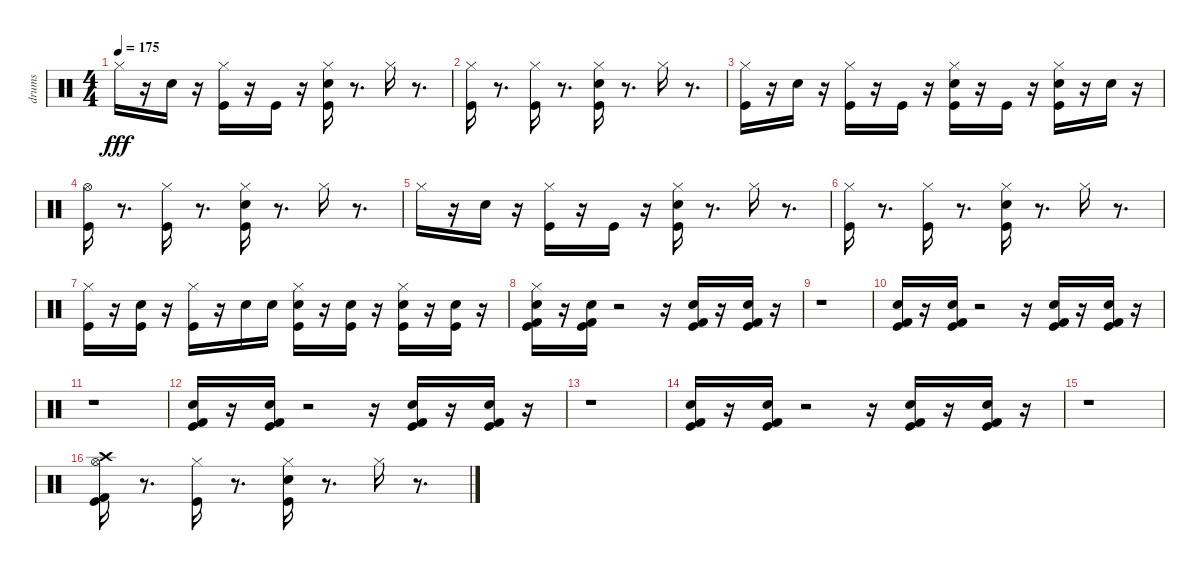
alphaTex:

\track ("drums" "drums") {instrument percussion}
\staff {score}
\articulation defaults
\ts (4 4)
\tempo 175
\clef neutral
\ks c "Hi-Hat (closed)".16{dy fff}
r.16 "Snare (hit) 2".16 r.16 ("Hi-Hat (closed)" "Kick (hit)").16 r.16 "Kick (hit)".16 r.16 ("Hi-Hat (closed)" "Snare (hit) 2" "Kick (hit)").16 r.8{d} "Hi-Hat (closed)".16 r.8{d} |
("Kick (hit)" "Hi-Hat (closed)").16 r.8{d} ("Kick (hit)" "Hi-Hat (closed)").16 r.8{d} ("Snare (hit) 2" "Kick (hit)" "Hi-Hat (closed)").16 r.8{d} "Hi-Hat (closed)".16 r.8{d} |
("Hi-Hat (closed)" "Kick (hit)").16 r.16 "Snare (hit) 2".16 r.16 ("Hi-Hat (closed)" "Kick (hit)").16 r.16 "Kick (hit)".16 r.16 ("Hi-Hat (closed)" "Snare (hit) 2" "Kick (hit)").16 r.16 "Kick (hit)".16 r.16 ("Hi-Hat (closed)" "Kick (hit)" "Snare (hit) 2").16 r.16 "Snare (hit) 2".16 r.16 |
("Kick (hit)" "Hi-Hat (open)").16 r.8{d} ("Kick (hit)" "Hi-Hat (closed)").16 r.8{d} ("Snare (hit) 2" "Kick (hit)" "Hi-Hat (closed)").16 r.8{d} "Hi-Hat (closed)".16 r.8{d} |
"Hi-Hat (closed)".16 r.16 "Snare (hit) 2".16 r.16 ("Hi-Hat (closed)" "Kick (hit)").16 r.16 "Kick (hit)".16 r.16 ("Hi-Hat (closed)" "Snare (hit) 2" "Kick (hit)").16 r.8{d} "Hi-Hat (closed)".16 r.8{d} |
("Kick (hit)" "Hi-Hat (closed)").16 r.8{d} ("Kick (hit)" "Hi-Hat (closed)").16 r.8{d} ("Snare (hit) 2" "Kick (hit)" "Hi-Hat (closed)").16 r.8{d} "Hi-Hat (closed)".16 r.8{d} |
("Hi-Hat (closed)" "Kick (hit)").16 r.16 ("Snare (hit) 2" "Kick (hit)").16 r.16 ("Hi-Hat (closed)" "Kick (hit)").16 r.16 "Snare (hit) 2".16 "Snare (hit) 2".16 ("Hi-Hat (closed)" "Snare (hit) 2" "Kick (hit)").16 r.16 ("Kick (hit)" "Snare (hit) 2").16 r.16 ("Hi-Hat (closed)" "Kick (hit)" "Snare (hit) 2").16 r.16 ("Snare (hit) 2" "Kick (hit)").16 r.16 |
("Snare (hit) 2" "Kick (hit)" "Hi-Hat (closed)" "Kick (hit) 2").16 r.16 ("Snare (hit) 2" "Kick (hit)" "Kick (hit) 2").16 r.2 r.16 ("Snare (hit) 2" "Kick (hit)" "Kick (hit) 2").16 r.16 ("Snare (hit) 2" "Kick (hit)" "Kick (hit) 2").16 r.16 |
r.1 |
("Kick (hit) 2" "Kick (hit)" "Snare (hit) 2").16 r.16 ("Snare (hit) 2" "Kick (hit)" "Kick (hit) 2").16 r.2 r.16 ("Kick (hit) 2" "Kick (hit)" "Snare (hit) 2").16 r.16 ("Snare (hit) 2" "Kick (hit)" "Kick (hit) 2").16 r.16 |
r.1 |
("Kick (hit) 2" "Kick (hit)" "Snare (hit) 2").16 r.16 ("Snare (hit) 2" "Kick (hit)" "Kick (hit) 2").16 r.2 r.16 ("Kick (hit) 2" "Kick (hit)" "Snare (hit) 2").16 r.16 ("Snare (hit) 2" "Kick (hit)" "Kick (hit) 2").16 r.16 |
r.1 |
("Kick (hit) 2" "Kick (hit)" "Snare (hit) 2").16 r.16 ("Snare (hit) 2" "Kick (hit)" "Kick (hit) 2").16 r.2 r.16 ("Kick (hit) 2" "Kick (hit)" "Snare (hit) 2").16 r.16 ("Snare (hit) 2" "Kick (hit)" "Kick (hit) 2").16 r.16 |
r.1 |
("Kick (hit)" "Hi-Hat (open)" "Crash high (hit)" "Kick (hit) 2").16 r.8{d} ("Kick (hit)" "Hi-Hat (closed)").16 r.8{d} ("Snare (hit) 2" "Kick (hit)" "Hi-Hat (closed)").16 r.8{d} "Hi-Hat (closed)".16 r.8{d}
